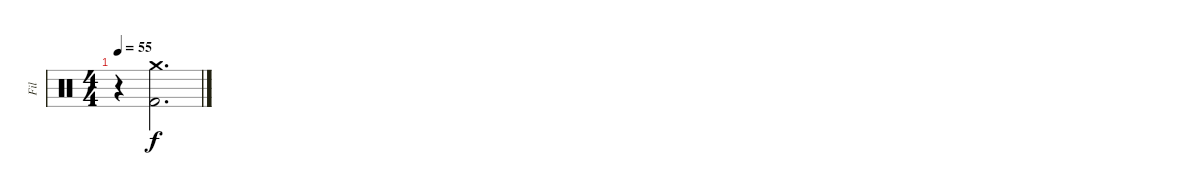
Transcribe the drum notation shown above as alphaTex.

\track ("Fil" "Fil") {instrument percussion}
\staff {score}
\articulation defaults
\ts (4 4)
\tempo 55
\clef neutral
\ks c
r.4{dy f} ("Crash medium (hit)" "Kick (hit) 2").2{d}
